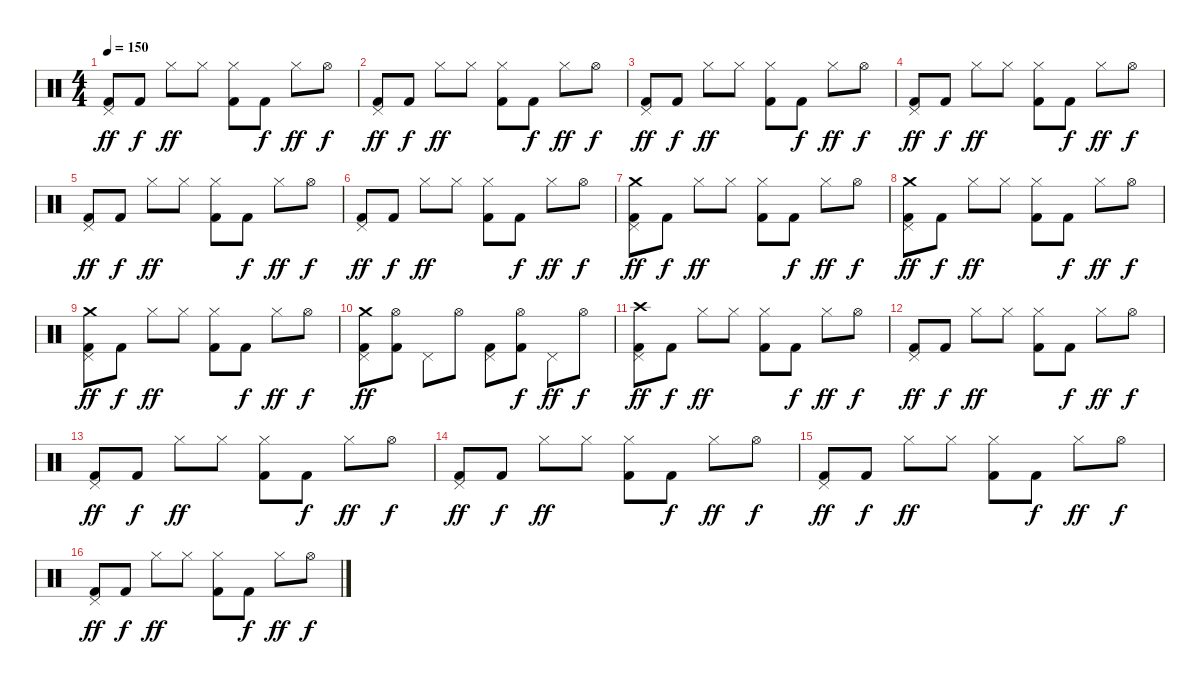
\track "" {instrument percussion}
\staff {score}
\articulation defaults
\ts (4 4)
\tempo 150
\clef neutral
\ks c
("Pedal Hi-Hat (hit)" "Kick (hit) 2").8{dy ff} "Kick (hit) 2".8{dy f} "Hi-Hat (closed)".8{dy ff} "Hi-Hat (closed)".8 ("Hi-Hat (closed)" "Kick (hit) 2").8 "Kick (hit) 2".8{dy f} "Hi-Hat (closed)".8{dy ff} "Hi-Hat (open)".8{dy f} |
("Pedal Hi-Hat (hit)" "Kick (hit) 2").8{dy ff} "Kick (hit) 2".8{dy f} "Hi-Hat (closed)".8{dy ff} "Hi-Hat (closed)".8 ("Hi-Hat (closed)" "Kick (hit) 2").8 "Kick (hit) 2".8{dy f} "Hi-Hat (closed)".8{dy ff} "Hi-Hat (open)".8{dy f} |
("Pedal Hi-Hat (hit)" "Kick (hit) 2").8{dy ff} "Kick (hit) 2".8{dy f} "Hi-Hat (closed)".8{dy ff} "Hi-Hat (closed)".8 ("Hi-Hat (closed)" "Kick (hit) 2").8 "Kick (hit) 2".8{dy f} "Hi-Hat (closed)".8{dy ff} "Hi-Hat (open)".8{dy f} |
("Pedal Hi-Hat (hit)" "Kick (hit) 2").8{dy ff} "Kick (hit) 2".8{dy f} "Hi-Hat (closed)".8{dy ff} "Hi-Hat (closed)".8 ("Hi-Hat (closed)" "Kick (hit) 2").8 "Kick (hit) 2".8{dy f} "Hi-Hat (closed)".8{dy ff} "Hi-Hat (open)".8{dy f} |
("Pedal Hi-Hat (hit)" "Kick (hit) 2").8{dy ff} "Kick (hit) 2".8{dy f} "Hi-Hat (closed)".8{dy ff} "Hi-Hat (closed)".8 ("Hi-Hat (closed)" "Kick (hit) 2").8 "Kick (hit) 2".8{dy f} "Hi-Hat (closed)".8{dy ff} "Hi-Hat (open)".8{dy f} |
("Pedal Hi-Hat (hit)" "Kick (hit) 2").8{dy ff} "Kick (hit) 2".8{dy f} "Hi-Hat (closed)".8{dy ff} "Hi-Hat (closed)".8 ("Hi-Hat (closed)" "Kick (hit) 2").8 "Kick (hit) 2".8{dy f} "Hi-Hat (closed)".8{dy ff} "Hi-Hat (open)".8{dy f} |
("Crash medium (hit)" "Pedal Hi-Hat (hit)" "Kick (hit) 2").8{dy ff} "Kick (hit) 2".8{dy f} "Hi-Hat (closed)".8{dy ff} "Hi-Hat (closed)".8 ("Hi-Hat (closed)" "Kick (hit) 2").8 "Kick (hit) 2".8{dy f} "Hi-Hat (closed)".8{dy ff} "Hi-Hat (open)".8{dy f} |
("Crash medium (hit)" "Pedal Hi-Hat (hit)" "Kick (hit) 2").8{dy ff} "Kick (hit) 2".8{dy f} "Hi-Hat (closed)".8{dy ff} "Hi-Hat (closed)".8 ("Hi-Hat (closed)" "Kick (hit) 2").8 "Kick (hit) 2".8{dy f} "Hi-Hat (closed)".8{dy ff} "Hi-Hat (open)".8{dy f} |
("Crash medium (hit)" "Pedal Hi-Hat (hit)" "Kick (hit) 2").8{dy ff} "Kick (hit) 2".8{dy f} "Hi-Hat (closed)".8{dy ff} "Hi-Hat (closed)".8 ("Hi-Hat (closed)" "Kick (hit) 2").8 "Kick (hit) 2".8{dy f} "Hi-Hat (closed)".8{dy ff} "Hi-Hat (open)".8{dy f} |
("Crash medium (hit)" "Pedal Hi-Hat (hit)" "Kick (hit) 2").8{dy ff} ("Hi-Hat (open)" "Kick (hit) 2").8 "Pedal Hi-Hat (hit)".8 "Hi-Hat (open)".8 ("Pedal Hi-Hat (hit)" "Kick (hit) 2").8 ("Hi-Hat (open)" "Kick (hit) 2").8{dy f} "Pedal Hi-Hat (hit)".8{dy ff} "Hi-Hat (open)".8{dy f} |
("Crash high (hit)" "Pedal Hi-Hat (hit)" "Kick (hit) 2").8{dy ff} "Kick (hit) 2".8{dy f} "Hi-Hat (closed)".8{dy ff} "Hi-Hat (closed)".8 ("Hi-Hat (closed)" "Kick (hit) 2").8 "Kick (hit) 2".8{dy f} "Hi-Hat (closed)".8{dy ff} "Hi-Hat (open)".8{dy f} |
("Pedal Hi-Hat (hit)" "Kick (hit) 2").8{dy ff} "Kick (hit) 2".8{dy f} "Hi-Hat (closed)".8{dy ff} "Hi-Hat (closed)".8 ("Hi-Hat (closed)" "Kick (hit) 2").8 "Kick (hit) 2".8{dy f} "Hi-Hat (closed)".8{dy ff} "Hi-Hat (open)".8{dy f} |
("Pedal Hi-Hat (hit)" "Kick (hit) 2").8{dy ff} "Kick (hit) 2".8{dy f} "Hi-Hat (closed)".8{dy ff} "Hi-Hat (closed)".8 ("Hi-Hat (closed)" "Kick (hit) 2").8 "Kick (hit) 2".8{dy f} "Hi-Hat (closed)".8{dy ff} "Hi-Hat (open)".8{dy f} |
("Pedal Hi-Hat (hit)" "Kick (hit) 2").8{dy ff} "Kick (hit) 2".8{dy f} "Hi-Hat (closed)".8{dy ff} "Hi-Hat (closed)".8 ("Hi-Hat (closed)" "Kick (hit) 2").8 "Kick (hit) 2".8{dy f} "Hi-Hat (closed)".8{dy ff} "Hi-Hat (open)".8{dy f} |
("Pedal Hi-Hat (hit)" "Kick (hit) 2").8{dy ff} "Kick (hit) 2".8{dy f} "Hi-Hat (closed)".8{dy ff} "Hi-Hat (closed)".8 ("Hi-Hat (closed)" "Kick (hit) 2").8 "Kick (hit) 2".8{dy f} "Hi-Hat (closed)".8{dy ff} "Hi-Hat (open)".8{dy f} |
("Pedal Hi-Hat (hit)" "Kick (hit) 2").8{dy ff} "Kick (hit) 2".8{dy f} "Hi-Hat (closed)".8{dy ff} "Hi-Hat (closed)".8 ("Hi-Hat (closed)" "Kick (hit) 2").8 "Kick (hit) 2".8{dy f} "Hi-Hat (closed)".8{dy ff} "Hi-Hat (open)".8{dy f}
